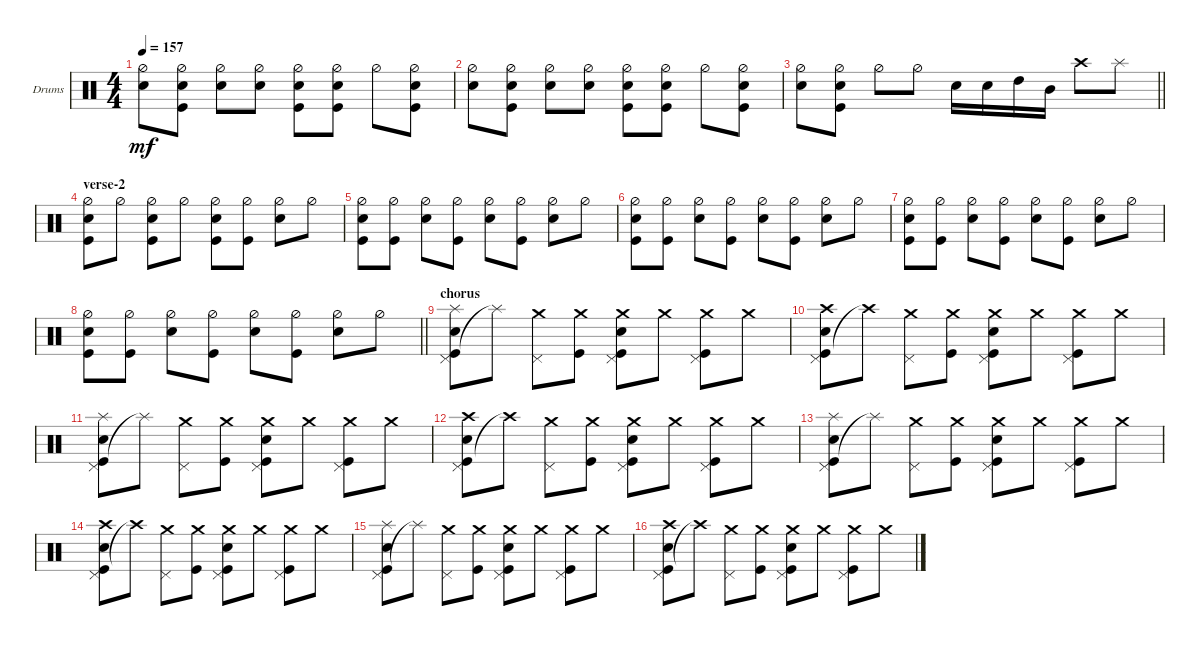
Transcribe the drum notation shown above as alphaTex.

\bracketExtendMode groupsimilarinstruments
\firstSystemTrackNameOrientation horizontal
\otherSystemsTrackNameOrientation horizontal
\track ("Drumkit" "Drums") {instrument percussion}
\staff {score}
\articulation defaults
\ts (4 4)
\tempo 157
\clef neutral
\scale
0.333333
\ks c
("Hi-Hat (half)" "Snare (hit) 2").8{dy mf} ("Hi-Hat (half)" "Snare (hit) 2" "Kick (hit)").8 ("Hi-Hat (half)" "Snare (hit) 2").8 ("Hi-Hat (half)" "Snare (hit) 2").8 ("Hi-Hat (half)" "Snare (hit) 2" "Kick (hit)").8 ("Hi-Hat (half)" "Snare (hit) 2" "Kick (hit)").8 "Hi-Hat (half)".8 ("Hi-Hat (half)" "Snare (hit) 2" "Kick (hit)").8 |
\scale
0.333333 ("Hi-Hat (half)" "Snare (hit) 2").8 ("Hi-Hat (half)" "Snare (hit) 2" "Kick (hit)").8 ("Hi-Hat (half)" "Snare (hit) 2").8 ("Hi-Hat (half)" "Snare (hit) 2").8 ("Hi-Hat (half)" "Snare (hit) 2" "Kick (hit)").8 ("Hi-Hat (half)" "Snare (hit) 2" "Kick (hit)").8 "Hi-Hat (half)".8 ("Hi-Hat (half)" "Snare (hit) 2" "Kick (hit)").8 |
\scale
0.333333
\barLineRight lightlight
("Hi-Hat (half)" "Snare (hit) 2").8 ("Hi-Hat (half)" "Snare (hit) 2" "Kick (hit)").8 "Hi-Hat (half)".8 "Hi-Hat (half)".8 "Snare (hit) 2".16 "Snare (hit) 2".16 "High Tom (hit)".16 "Mid Tom (hit)".16 "Crash high (hit)".8 "Splash (hit)".8 |
\section ("" "verse-2")
\scale
0.333333 ("Hi-Hat (half)" "Kick (hit)" "Snare (hit) 2").8 "Hi-Hat (half)".8 ("Hi-Hat (half)" "Kick (hit)" "Snare (hit) 2").8 "Hi-Hat (half)".8 ("Hi-Hat (half)" "Kick (hit)" "Snare (hit) 2").8 ("Hi-Hat (half)" "Kick (hit)").8 ("Hi-Hat (half)" "Snare (hit) 2").8 "Hi-Hat (half)".8 |
\scale
0.333333 ("Hi-Hat (half)" "Kick (hit)" "Snare (hit) 2").8 ("Hi-Hat (half)" "Kick (hit)").8 ("Hi-Hat (half)" "Snare (hit) 2").8 ("Hi-Hat (half)" "Kick (hit)").8 ("Hi-Hat (half)" "Snare (hit) 2").8 ("Hi-Hat (half)" "Kick (hit)").8 ("Hi-Hat (half)" "Snare (hit) 2").8 "Hi-Hat (half)".8 |
\scale
0.333333 ("Hi-Hat (half)" "Kick (hit)" "Snare (hit) 2").8 ("Hi-Hat (half)" "Kick (hit)").8 ("Hi-Hat (half)" "Snare (hit) 2").8 ("Hi-Hat (half)" "Kick (hit)").8 ("Hi-Hat (half)" "Snare (hit) 2").8 ("Hi-Hat (half)" "Kick (hit)").8 ("Hi-Hat (half)" "Snare (hit) 2").8 "Hi-Hat (half)".8 |
\scale
0.333333 ("Hi-Hat (half)" "Kick (hit)" "Snare (hit) 2").8 ("Hi-Hat (half)" "Kick (hit)").8 ("Hi-Hat (half)" "Snare (hit) 2").8 ("Hi-Hat (half)" "Kick (hit)").8 ("Hi-Hat (half)" "Snare (hit) 2").8 ("Hi-Hat (half)" "Kick (hit)").8 ("Hi-Hat (half)" "Snare (hit) 2").8 "Hi-Hat (half)".8 |
\scale
0.333333
\barLineRight lightlight
("Hi-Hat (half)" "Kick (hit)" "Snare (hit) 2").8 ("Hi-Hat (half)" "Kick (hit)").8 ("Hi-Hat (half)" "Snare (hit) 2").8 ("Hi-Hat (half)" "Kick (hit)").8 ("Hi-Hat (half)" "Snare (hit) 2").8 ("Hi-Hat (half)" "Kick (hit)").8 ("Hi-Hat (half)" "Snare (hit) 2").8 "Hi-Hat (half)".8 |
\section ("" "chorus")
\scale
0.333333 ("Kick (hit)" "Snare (hit) 2" "Pedal Hi-Hat (hit)" "Splash (hit)").8 "Splash (hit)"{t}.8 ("Pedal Hi-Hat (hit)" "Crash medium (hit)").8 ("Kick (hit)" "Crash medium (hit)").8 ("Kick (hit)" "Snare (hit) 2" "Pedal Hi-Hat (hit)" "Crash medium (hit)").8 "Crash medium (hit)".8 ("Pedal Hi-Hat (hit)" "Kick (hit)" "Crash medium (hit)").8 "Crash medium (hit)".8 |
\scale
0.333333 ("Kick (hit)" "Snare (hit) 2" "Pedal Hi-Hat (hit)" "Crash high (hit)").8 "Crash high (hit)"{t}.8 ("Pedal Hi-Hat (hit)" "Crash medium (hit)").8 ("Kick (hit)" "Crash medium (hit)").8 ("Kick (hit)" "Snare (hit) 2" "Pedal Hi-Hat (hit)" "Crash medium (hit)").8 "Crash medium (hit)".8 ("Pedal Hi-Hat (hit)" "Kick (hit)" "Crash medium (hit)").8 "Crash medium (hit)".8 |
\scale
0.333333 ("Kick (hit)" "Snare (hit) 2" "Pedal Hi-Hat (hit)" "Splash (hit)").8 "Splash (hit)"{t}.8 ("Pedal Hi-Hat (hit)" "Crash medium (hit)").8 ("Kick (hit)" "Crash medium (hit)").8 ("Kick (hit)" "Snare (hit) 2" "Pedal Hi-Hat (hit)" "Crash medium (hit)").8 "Crash medium (hit)".8 ("Pedal Hi-Hat (hit)" "Kick (hit)" "Crash medium (hit)").8 "Crash medium (hit)".8 |
\scale
0.333333 ("Kick (hit)" "Snare (hit) 2" "Pedal Hi-Hat (hit)" "Crash high (hit)").8 "Crash high (hit)"{t}.8 ("Pedal Hi-Hat (hit)" "Crash medium (hit)").8 ("Kick (hit)" "Crash medium (hit)").8 ("Kick (hit)" "Snare (hit) 2" "Pedal Hi-Hat (hit)" "Crash medium (hit)").8 "Crash medium (hit)".8 ("Pedal Hi-Hat (hit)" "Kick (hit)" "Crash medium (hit)").8 "Crash medium (hit)".8 |
\scale
0.333333 ("Kick (hit)" "Snare (hit) 2" "Pedal Hi-Hat (hit)" "Splash (hit)").8 "Splash (hit)"{t}.8 ("Pedal Hi-Hat (hit)" "Crash medium (hit)").8 ("Kick (hit)" "Crash medium (hit)").8 ("Kick (hit)" "Snare (hit) 2" "Pedal Hi-Hat (hit)" "Crash medium (hit)").8 "Crash medium (hit)".8 ("Pedal Hi-Hat (hit)" "Kick (hit)" "Crash medium (hit)").8 "Crash medium (hit)".8 |
\scale
0.333333 ("Kick (hit)" "Snare (hit) 2" "Pedal Hi-Hat (hit)" "Crash high (hit)").8 "Crash high (hit)"{t}.8 ("Pedal Hi-Hat (hit)" "Crash medium (hit)").8 ("Kick (hit)" "Crash medium (hit)").8 ("Kick (hit)" "Snare (hit) 2" "Pedal Hi-Hat (hit)" "Crash medium (hit)").8 "Crash medium (hit)".8 ("Pedal Hi-Hat (hit)" "Kick (hit)" "Crash medium (hit)").8 "Crash medium (hit)".8 |
\scale
0.333333 ("Kick (hit)" "Snare (hit) 2" "Pedal Hi-Hat (hit)" "Splash (hit)").8 "Splash (hit)"{t}.8 ("Pedal Hi-Hat (hit)" "Crash medium (hit)").8 ("Kick (hit)" "Crash medium (hit)").8 ("Kick (hit)" "Snare (hit) 2" "Pedal Hi-Hat (hit)" "Crash medium (hit)").8 "Crash medium (hit)".8 ("Pedal Hi-Hat (hit)" "Kick (hit)" "Crash medium (hit)").8 "Crash medium (hit)".8 |
\scale
0.333333 ("Kick (hit)" "Snare (hit) 2" "Pedal Hi-Hat (hit)" "Crash high (hit)").8 "Crash high (hit)"{t}.8 ("Pedal Hi-Hat (hit)" "Crash medium (hit)").8 ("Kick (hit)" "Crash medium (hit)").8 ("Kick (hit)" "Snare (hit) 2" "Pedal Hi-Hat (hit)" "Crash medium (hit)").8 "Crash medium (hit)".8 ("Pedal Hi-Hat (hit)" "Kick (hit)" "Crash medium (hit)").8 "Crash medium (hit)".8
